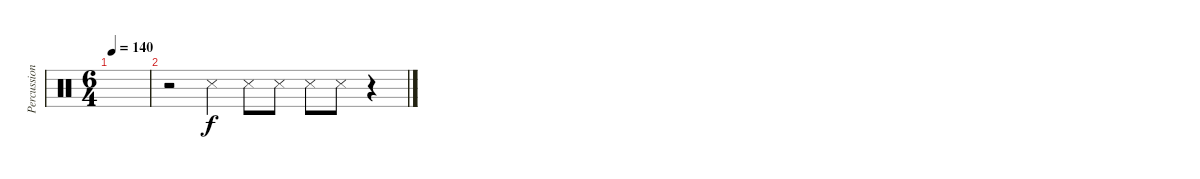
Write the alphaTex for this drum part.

\track ("Percussion" "Percussion") {instrument percussion}
\staff {score}
\articulation defaults
\ts (6 4)
\tempo 140
\clef neutral
\ks c
|
r.2 "Metronome (hit)".4 "Metronome (hit)".8 "Metronome (hit)".8 "Metronome (hit)".8 "Metronome (hit)".8 r.4
